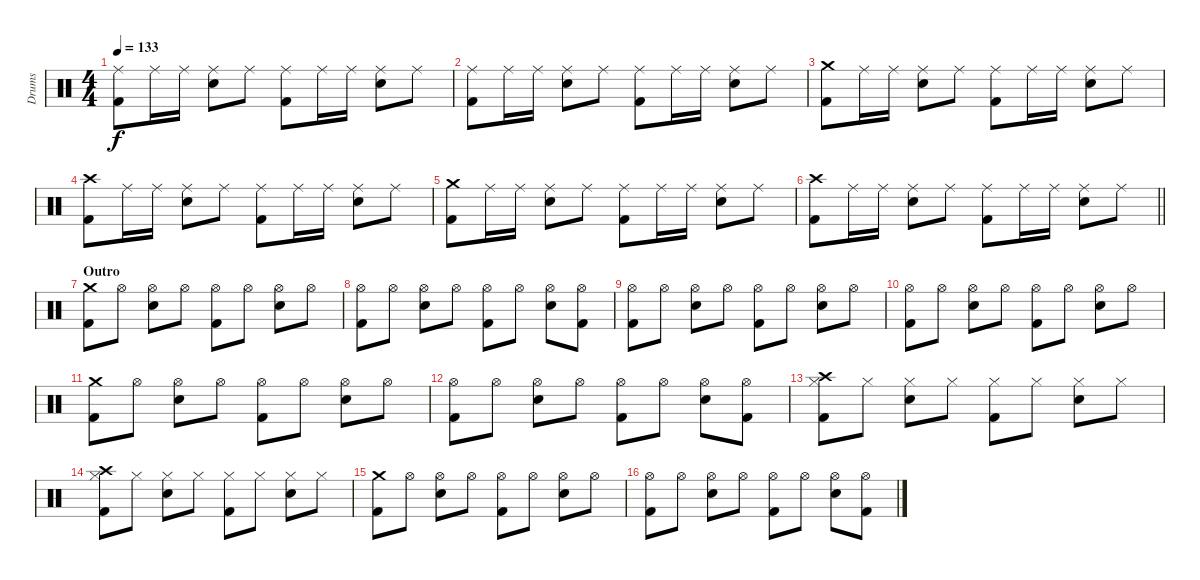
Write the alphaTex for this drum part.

\track ("Drums" "Drums") {instrument percussion}
\staff {score}
\articulation defaults
\ts (4 4)
\tempo 133
\clef neutral
\ks c
("Ride (middle)" "Kick (hit) 2").8{dy f} "Ride (middle)".16 "Ride (middle)".16 ("Ride (middle)" "Snare (hit) 2").8 "Ride (middle)".8 ("Ride (middle)" "Kick (hit) 2").8 "Ride (middle)".16 "Ride (middle)".16 ("Ride (middle)" "Snare (hit) 2").8 "Ride (middle)".8 |
("Ride (middle)" "Kick (hit) 2").8 "Ride (middle)".16 "Ride (middle)".16 ("Ride (middle)" "Snare (hit) 2").8 "Ride (middle)".8 ("Ride (middle)" "Kick (hit) 2").8 "Ride (middle)".16 "Ride (middle)".16 ("Ride (middle)" "Snare (hit) 2").8 "Ride (middle)".8 |
("Crash medium (hit)" "Kick (hit) 2").8 "Ride (middle)".16 "Ride (middle)".16 ("Ride (middle)" "Snare (hit) 2").8 "Ride (middle)".8 ("Ride (middle)" "Kick (hit) 2").8 "Ride (middle)".16 "Ride (middle)".16 ("Ride (middle)" "Snare (hit) 2").8 "Ride (middle)".8 |
("Crash high (hit)" "Kick (hit) 2").8 "Ride (middle)".16 "Ride (middle)".16 ("Ride (middle)" "Snare (hit) 2").8 "Ride (middle)".8 ("Ride (middle)" "Kick (hit) 2").8 "Ride (middle)".16 "Ride (middle)".16 ("Ride (middle)" "Snare (hit) 2").8 "Ride (middle)".8 |
("Crash medium (hit)" "Kick (hit) 2").8 "Ride (middle)".16 "Ride (middle)".16 ("Ride (middle)" "Snare (hit) 2").8 "Ride (middle)".8 ("Ride (middle)" "Kick (hit) 2").8 "Ride (middle)".16 "Ride (middle)".16 ("Ride (middle)" "Snare (hit) 2").8 "Ride (middle)".8 |
\barLineRight lightlight
("Crash high (hit)" "Kick (hit) 2").8 "Ride (middle)".16 "Ride (middle)".16 ("Ride (middle)" "Snare (hit) 2").8 "Ride (middle)".8 ("Ride (middle)" "Kick (hit) 2").8 "Ride (middle)".16 "Ride (middle)".16 ("Ride (middle)" "Snare (hit) 2").8 "Ride (middle)".8 |
\section ("" "Outro")
("Crash medium (hit)" "Kick (hit) 2").8 "Hi-Hat (open)".8 ("Hi-Hat (open)" "Snare (hit) 2").8 "Hi-Hat (open)".8 ("Hi-Hat (open)" "Kick (hit) 2").8 "Hi-Hat (open)".8 ("Hi-Hat (open)" "Snare (hit) 2").8 "Hi-Hat (open)".8 |
("Hi-Hat (open)" "Kick (hit) 2").8 "Hi-Hat (open)".8 ("Hi-Hat (open)" "Snare (hit) 2").8 "Hi-Hat (open)".8 ("Hi-Hat (open)" "Kick (hit) 2").8 "Hi-Hat (open)".8 ("Hi-Hat (open)" "Snare (hit) 2").8 ("Hi-Hat (open)" "Kick (hit) 2").8 |
("Hi-Hat (open)" "Kick (hit) 2").8 "Hi-Hat (open)".8 ("Hi-Hat (open)" "Snare (hit) 2").8 "Hi-Hat (open)".8 ("Hi-Hat (open)" "Kick (hit) 2").8 "Hi-Hat (open)".8 ("Hi-Hat (open)" "Snare (hit) 2").8 "Hi-Hat (open)".8 |
("Hi-Hat (open)" "Kick (hit) 2").8 "Hi-Hat (open)".8 ("Hi-Hat (open)" "Snare (hit) 2").8 "Hi-Hat (open)".8 ("Hi-Hat (open)" "Kick (hit) 2").8 "Hi-Hat (open)".8 ("Hi-Hat (open)" "Snare (hit) 2").8 "Hi-Hat (open)".8 |
("Crash medium (hit)" "Kick (hit) 2").8 "Hi-Hat (open)".8 ("Hi-Hat (open)" "Snare (hit) 2").8 "Hi-Hat (open)".8 ("Hi-Hat (open)" "Kick (hit) 2").8 "Hi-Hat (open)".8 ("Hi-Hat (open)" "Snare (hit) 2").8 "Hi-Hat (open)".8 |
("Hi-Hat (open)" "Kick (hit) 2").8 "Hi-Hat (open)".8 ("Hi-Hat (open)" "Snare (hit) 2").8 "Hi-Hat (open)".8 ("Hi-Hat (open)" "Kick (hit) 2").8 "Hi-Hat (open)".8 ("Hi-Hat (open)" "Snare (hit) 2").8 ("Hi-Hat (open)" "Kick (hit) 2").8 |
("Crash high (hit)" "Hi-Hat (closed)" "Kick (hit) 2").8 "Hi-Hat (closed)".8 ("Hi-Hat (closed)" "Snare (hit) 2").8 "Hi-Hat (closed)".8 ("Hi-Hat (closed)" "Kick (hit) 2").8 "Hi-Hat (closed)".8 ("Hi-Hat (closed)" "Snare (hit) 2").8 "Hi-Hat (closed)".8 |
("Crash high (hit)" "Hi-Hat (closed)" "Kick (hit) 2").8 "Hi-Hat (closed)".8 ("Hi-Hat (closed)" "Snare (hit) 2").8 "Hi-Hat (closed)".8 ("Hi-Hat (closed)" "Kick (hit) 2").8 "Hi-Hat (closed)".8 ("Hi-Hat (closed)" "Snare (hit) 2").8 "Hi-Hat (closed)".8 |
("Crash medium (hit)" "Kick (hit) 2").8 "Hi-Hat (open)".8 ("Hi-Hat (open)" "Snare (hit) 2").8 "Hi-Hat (open)".8 ("Hi-Hat (open)" "Kick (hit) 2").8 "Hi-Hat (open)".8 ("Hi-Hat (open)" "Snare (hit) 2").8 "Hi-Hat (open)".8 |
("Hi-Hat (open)" "Kick (hit) 2").8 "Hi-Hat (open)".8 ("Hi-Hat (open)" "Snare (hit) 2").8 "Hi-Hat (open)".8 ("Hi-Hat (open)" "Kick (hit) 2").8 "Hi-Hat (open)".8 ("Hi-Hat (open)" "Snare (hit) 2").8 ("Hi-Hat (open)" "Kick (hit) 2").8
